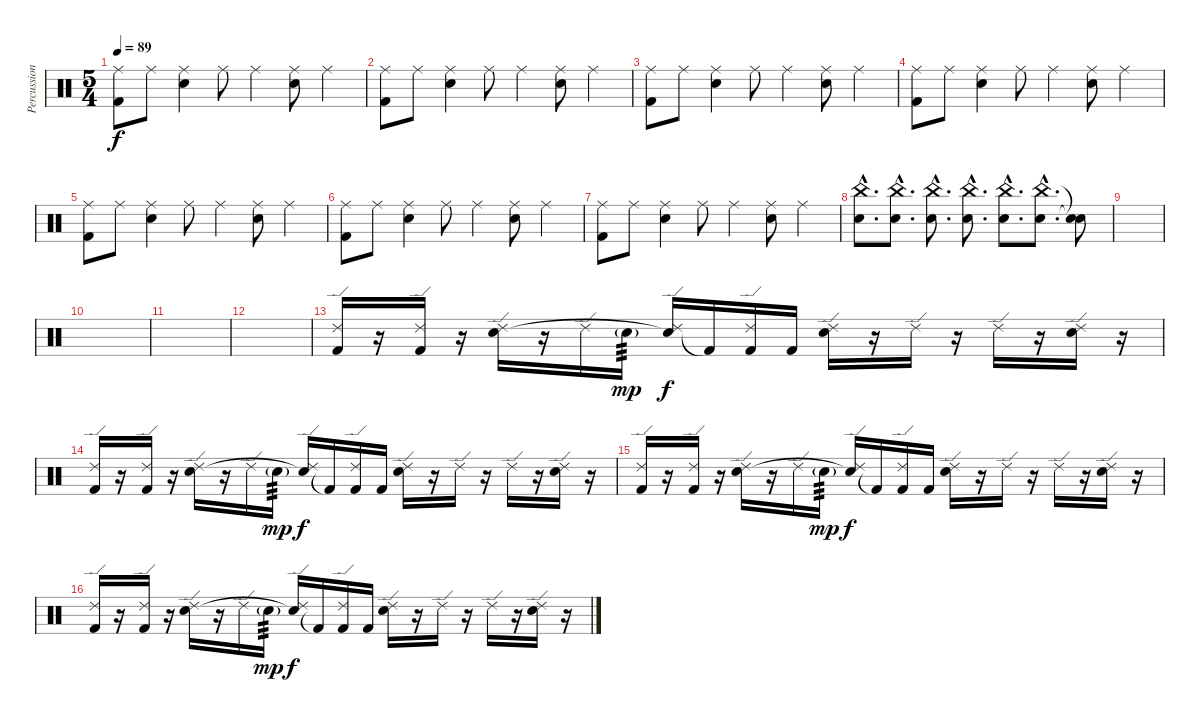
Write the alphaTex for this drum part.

\track ("Percussion" "Percussion") {instrument percussion}
\staff {score}
\articulation defaults
\ts (5 4)
\tempo 89
\clef neutral
\ks c
("Ride (middle)" "Kick (hit) 2").8{dy f} "Ride (middle)".8 ("Ride (middle)" "Snare (hit) 2").4 "Ride (middle)".8 "Ride (middle)".4 ("Ride (middle)" "Snare (hit) 2").8 "Ride (middle)".4 |
("Ride (middle)" "Kick (hit) 2").8 "Ride (middle)".8 ("Ride (middle)" "Snare (hit) 2").4 "Ride (middle)".8 "Ride (middle)".4 ("Ride (middle)" "Snare (hit) 2").8 "Ride (middle)".4 |
("Ride (middle)" "Kick (hit) 2").8 "Ride (middle)".8 ("Ride (middle)" "Snare (hit) 2").4 "Ride (middle)".8 "Ride (middle)".4 ("Ride (middle)" "Snare (hit) 2").8 "Ride (middle)".4 |
("Ride (middle)" "Kick (hit) 2").8 "Ride (middle)".8 ("Ride (middle)" "Snare (hit) 2").4 "Ride (middle)".8 "Ride (middle)".4 ("Ride (middle)" "Snare (hit) 2").8 "Ride (middle)".4 |
("Ride (middle)" "Kick (hit) 2").8 "Ride (middle)".8 ("Ride (middle)" "Snare (hit) 2").4 "Ride (middle)".8 "Ride (middle)".4 ("Ride (middle)" "Snare (hit) 2").8 "Ride (middle)".4 |
("Ride (middle)" "Kick (hit) 2").8 "Ride (middle)".8 ("Ride (middle)" "Snare (hit) 2").4 "Ride (middle)".8 "Ride (middle)".4 ("Ride (middle)" "Snare (hit) 2").8 "Ride (middle)".4 |
("Ride (middle)" "Kick (hit) 2").8 "Ride (middle)".8 ("Ride (middle)" "Snare (hit) 2").4 "Ride (middle)".8 "Ride (middle)".4 ("Ride (middle)" "Snare (hit) 2").8 "Ride (middle)".4 |
("China (hit)"{hac} "Snare (hit) 2"{hac}).8{d} ("China (hit)"{hac} "Snare (hit) 2"{hac}).8{d} ("China (hit)"{hac} "Snare (hit) 2"{hac}).8{d} ("China (hit)"{hac} "Snare (hit) 2"{hac}).8{d} ("China (hit)"{hac} "Snare (hit) 2"{hac}).8{d} ("China (hit)"{hac} "Snare (hit) 2"{hac}).8{d} ("Snare (hit)"{t} "Snare (hit)"{t}).8 |
|
|
|
|
("Ride (edge) 2" "Kick (hit) 2").16 r.16 ("Ride (edge) 2" "Kick (hit) 2").16 r.16 ("Ride (edge) 2" "Snare (hit) 2").16 r.16 "Ride (edge) 2".16 "Snare (hit) 2"{g}.16{tp 3 dy mp} ("Ride (edge) 2" "Snare (hit)"{t}).16{dy f} "Kick (hit) 2"{t}.16 ("Ride (edge) 2" "Kick (hit) 2").16 "Kick (hit) 2".16 ("Ride (edge) 2" "Snare (hit) 2").16 r.16 "Ride (edge) 2".16 r.16 "Ride (edge) 2".16 r.16 ("Ride (edge) 2" "Snare (hit) 2").16 r.16 |
("Ride (edge) 2" "Kick (hit) 2").16 r.16 ("Ride (edge) 2" "Kick (hit) 2").16 r.16 ("Ride (edge) 2" "Snare (hit) 2").16 r.16 "Ride (edge) 2".16 "Snare (hit) 2"{g}.16{tp 3 dy mp} ("Ride (edge) 2" "Snare (hit)"{t}).16{dy f} "Kick (hit) 2"{t}.16 ("Ride (edge) 2" "Kick (hit) 2").16 "Kick (hit) 2".16 ("Ride (edge) 2" "Snare (hit) 2").16 r.16 "Ride (edge) 2".16 r.16 "Ride (edge) 2".16 r.16 ("Ride (edge) 2" "Snare (hit) 2").16 r.16 |
("Ride (edge) 2" "Kick (hit) 2").16 r.16 ("Ride (edge) 2" "Kick (hit) 2").16 r.16 ("Ride (edge) 2" "Snare (hit) 2").16 r.16 "Ride (edge) 2".16 "Snare (hit) 2"{g}.16{tp 3 dy mp} ("Ride (edge) 2" "Snare (hit)"{t}).16{dy f} "Kick (hit) 2"{t}.16 ("Ride (edge) 2" "Kick (hit) 2").16 "Kick (hit) 2".16 ("Ride (edge) 2" "Snare (hit) 2").16 r.16 "Ride (edge) 2".16 r.16 "Ride (edge) 2".16 r.16 ("Ride (edge) 2" "Snare (hit) 2").16 r.16 |
("Ride (edge) 2" "Kick (hit) 2").16 r.16 ("Ride (edge) 2" "Kick (hit) 2").16 r.16 ("Ride (edge) 2" "Snare (hit) 2").16 r.16 "Ride (edge) 2".16 "Snare (hit) 2"{g}.16{tp 3 dy mp} ("Ride (edge) 2" "Snare (hit)"{t}).16{dy f} "Kick (hit) 2"{t}.16 ("Ride (edge) 2" "Kick (hit) 2").16 "Kick (hit) 2".16 ("Ride (edge) 2" "Snare (hit) 2").16 r.16 "Ride (edge) 2".16 r.16 "Ride (edge) 2".16 r.16 ("Ride (edge) 2" "Snare (hit) 2").16 r.16
